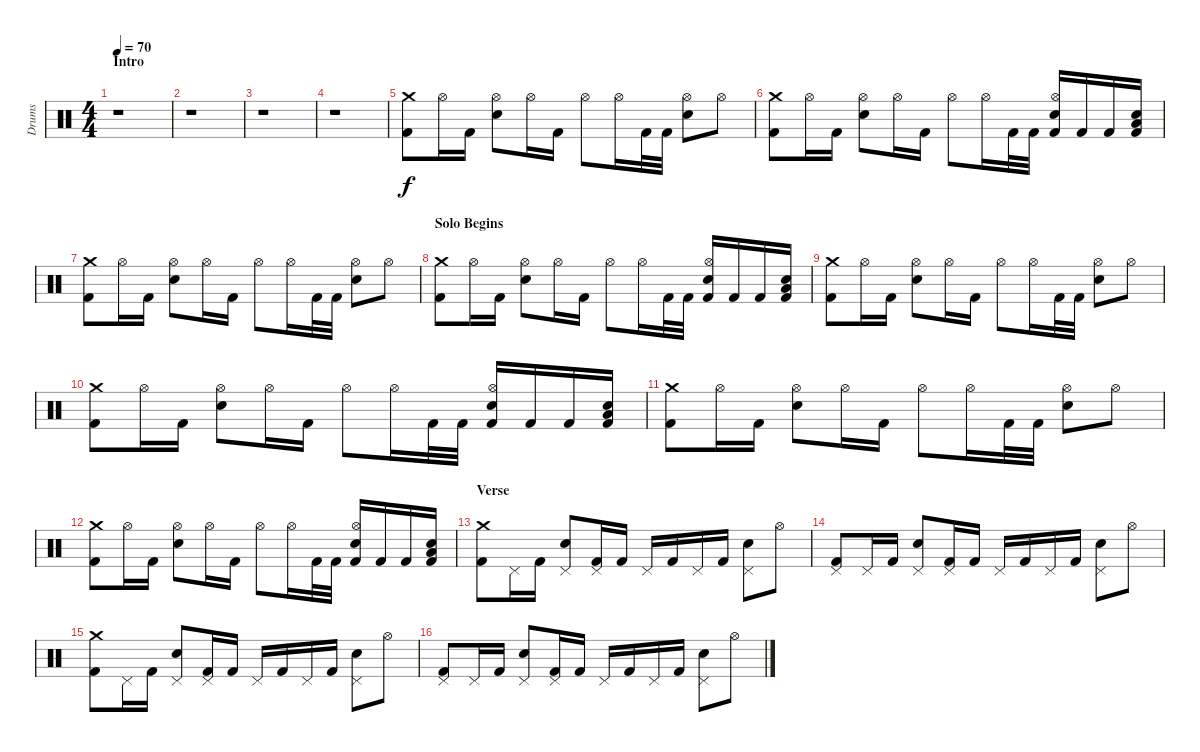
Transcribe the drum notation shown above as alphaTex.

\track ("Drums" "Drums") {instrument percussion}
\staff {score}
\articulation defaults
\ts (4 4)
\section ("" "Intro")
\tempo 70
\clef neutral
\ks c
r.1{dy f} |
r.1 |
r.1 |
r.1 |
("Crash medium (hit)" "Kick (hit) 2").8 "Hi-Hat (open)".16 "Kick (hit) 2".16 ("Hi-Hat (open)" "Electric Snare (hit)").8 "Hi-Hat (open)".16 "Kick (hit) 2".16 "Hi-Hat (open)".8 "Hi-Hat (open)".16 "Kick (hit) 2".32 "Kick (hit) 2".32 ("Hi-Hat (open)" "Electric Snare (hit)").8 "Hi-Hat (open)".8 |
("Crash medium (hit)" "Kick (hit) 2").8 "Hi-Hat (open)".16 "Kick (hit) 2".16 ("Hi-Hat (open)" "Electric Snare (hit)").8 "Hi-Hat (open)".16 "Kick (hit) 2".16 "Hi-Hat (open)".8 "Hi-Hat (open)".16 "Kick (hit) 2".32 "Kick (hit) 2".32 ("Hi-Hat (open)" "Electric Snare (hit)" "Kick (hit) 2").16 "Kick (hit) 2".16 "Kick (hit) 2".16 ("Electric Snare (hit)" "Low Tom (hit)" "Kick (hit) 2").16 |
("Crash medium (hit)" "Kick (hit) 2").8 "Hi-Hat (open)".16 "Kick (hit) 2".16 ("Hi-Hat (open)" "Electric Snare (hit)").8 "Hi-Hat (open)".16 "Kick (hit) 2".16 "Hi-Hat (open)".8 "Hi-Hat (open)".16 "Kick (hit) 2".32 "Kick (hit) 2".32 ("Hi-Hat (open)" "Electric Snare (hit)").8 "Hi-Hat (open)".8 |
\section ("" "Solo Begins")
("Crash medium (hit)" "Kick (hit) 2").8 "Hi-Hat (open)".16 "Kick (hit) 2".16 ("Hi-Hat (open)" "Electric Snare (hit)").8 "Hi-Hat (open)".16 "Kick (hit) 2".16 "Hi-Hat (open)".8 "Hi-Hat (open)".16 "Kick (hit) 2".32 "Kick (hit) 2".32 ("Hi-Hat (open)" "Electric Snare (hit)" "Kick (hit) 2").16 "Kick (hit) 2".16 "Kick (hit) 2".16 ("Electric Snare (hit)" "Low Tom (hit)" "Kick (hit) 2").16 |
("Crash medium (hit)" "Kick (hit) 2").8 "Hi-Hat (open)".16 "Kick (hit) 2".16 ("Hi-Hat (open)" "Electric Snare (hit)").8 "Hi-Hat (open)".16 "Kick (hit) 2".16 "Hi-Hat (open)".8 "Hi-Hat (open)".16 "Kick (hit) 2".32 "Kick (hit) 2".32 ("Hi-Hat (open)" "Electric Snare (hit)").8 "Hi-Hat (open)".8 |
("Crash medium (hit)" "Kick (hit) 2").8 "Hi-Hat (open)".16 "Kick (hit) 2".16 ("Hi-Hat (open)" "Electric Snare (hit)").8 "Hi-Hat (open)".16 "Kick (hit) 2".16 "Hi-Hat (open)".8 "Hi-Hat (open)".16 "Kick (hit) 2".32 "Kick (hit) 2".32 ("Hi-Hat (open)" "Electric Snare (hit)" "Kick (hit) 2").16 "Kick (hit) 2".16 "Kick (hit) 2".16 ("Electric Snare (hit)" "Low Tom (hit)" "Kick (hit) 2").16 |
("Crash medium (hit)" "Kick (hit) 2").8 "Hi-Hat (open)".16 "Kick (hit) 2".16 ("Hi-Hat (open)" "Electric Snare (hit)").8 "Hi-Hat (open)".16 "Kick (hit) 2".16 "Hi-Hat (open)".8 "Hi-Hat (open)".16 "Kick (hit) 2".32 "Kick (hit) 2".32 ("Hi-Hat (open)" "Electric Snare (hit)").8 "Hi-Hat (open)".8 |
("Crash medium (hit)" "Kick (hit) 2").8 "Hi-Hat (open)".16 "Kick (hit) 2".16 ("Hi-Hat (open)" "Electric Snare (hit)").8 "Hi-Hat (open)".16 "Kick (hit) 2".16 "Hi-Hat (open)".8 "Hi-Hat (open)".16 "Kick (hit) 2".32 "Kick (hit) 2".32 ("Hi-Hat (open)" "Electric Snare (hit)" "Kick (hit) 2").16 "Kick (hit) 2".16 "Kick (hit) 2".16 ("Electric Snare (hit)" "Low Tom (hit)" "Kick (hit) 2").16 |
\section ("" "Verse")
("Crash medium (hit)" "Kick (hit) 2").8 "Pedal Hi-Hat (hit)".16 "Kick (hit) 2".16 ("Pedal Hi-Hat (hit)" "Electric Snare (hit)").8 ("Pedal Hi-Hat (hit)" "Kick (hit) 2").16 "Kick (hit) 2".16 "Pedal Hi-Hat (hit)".16 "Kick (hit) 2".16 "Pedal Hi-Hat (hit)".16 "Kick (hit) 2".16 ("Pedal Hi-Hat (hit)" "Electric Snare (hit)").8 "Hi-Hat (open)".8 |
("Pedal Hi-Hat (hit)" "Kick (hit) 2").8 "Pedal Hi-Hat (hit)".16 "Kick (hit) 2".16 ("Pedal Hi-Hat (hit)" "Electric Snare (hit)").8 ("Pedal Hi-Hat (hit)" "Kick (hit) 2").16 "Kick (hit) 2".16 "Pedal Hi-Hat (hit)".16 "Kick (hit) 2".16 "Pedal Hi-Hat (hit)".16 "Kick (hit) 2".16 ("Pedal Hi-Hat (hit)" "Electric Snare (hit)").8 "Hi-Hat (open)".8 |
("Crash medium (hit)" "Kick (hit) 2").8 "Pedal Hi-Hat (hit)".16 "Kick (hit) 2".16 ("Pedal Hi-Hat (hit)" "Electric Snare (hit)").8 ("Pedal Hi-Hat (hit)" "Kick (hit) 2").16 "Kick (hit) 2".16 "Pedal Hi-Hat (hit)".16 "Kick (hit) 2".16 "Pedal Hi-Hat (hit)".16 "Kick (hit) 2".16 ("Pedal Hi-Hat (hit)" "Electric Snare (hit)").8 "Hi-Hat (open)".8 |
("Pedal Hi-Hat (hit)" "Kick (hit) 2").8 "Pedal Hi-Hat (hit)".16 "Kick (hit) 2".16 ("Pedal Hi-Hat (hit)" "Electric Snare (hit)").8 ("Pedal Hi-Hat (hit)" "Kick (hit) 2").16 "Kick (hit) 2".16 "Pedal Hi-Hat (hit)".16 "Kick (hit) 2".16 "Pedal Hi-Hat (hit)".16 "Kick (hit) 2".16 ("Pedal Hi-Hat (hit)" "Electric Snare (hit)").8 "Hi-Hat (open)".8
